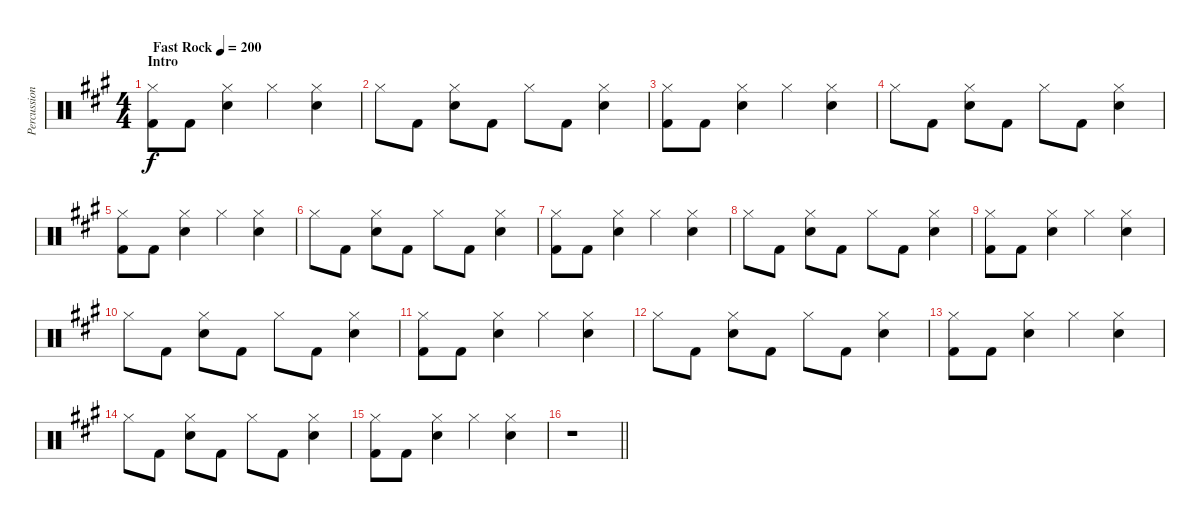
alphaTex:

\track ("Percussion" "Percussion") {instrument percussion}
\staff {score}
\articulation defaults
\ts (4 4)
\section ("" "Intro")
\tempo (200 "Fast Rock")
\clef neutral
\ks f#minor
("Hi-Hat (closed)" "Kick (hit) 2").8{dy f} "Kick (hit) 2".8 ("Hi-Hat (closed)" "Snare (hit) 2").4 "Hi-Hat (closed)".4 ("Hi-Hat (closed)" "Snare (hit) 2").4 |
"Hi-Hat (closed)".8 "Kick (hit) 2".8 ("Hi-Hat (closed)" "Snare (hit) 2").8 "Kick (hit) 2".8 "Hi-Hat (closed)".8 "Kick (hit) 2".8 ("Hi-Hat (closed)" "Snare (hit) 2").4 |
("Hi-Hat (closed)" "Kick (hit) 2").8 "Kick (hit) 2".8 ("Hi-Hat (closed)" "Snare (hit) 2").4 "Hi-Hat (closed)".4 ("Hi-Hat (closed)" "Snare (hit) 2").4 |
"Hi-Hat (closed)".8 "Kick (hit) 2".8 ("Hi-Hat (closed)" "Snare (hit) 2").8 "Kick (hit) 2".8 "Hi-Hat (closed)".8 "Kick (hit) 2".8 ("Hi-Hat (closed)" "Snare (hit) 2").4 |
("Hi-Hat (closed)" "Kick (hit) 2").8 "Kick (hit) 2".8 ("Hi-Hat (closed)" "Snare (hit) 2").4 "Hi-Hat (closed)".4 ("Hi-Hat (closed)" "Snare (hit) 2").4 |
"Hi-Hat (closed)".8 "Kick (hit) 2".8 ("Hi-Hat (closed)" "Snare (hit) 2").8 "Kick (hit) 2".8 "Hi-Hat (closed)".8 "Kick (hit) 2".8 ("Hi-Hat (closed)" "Snare (hit) 2").4 |
("Hi-Hat (closed)" "Kick (hit) 2").8 "Kick (hit) 2".8 ("Hi-Hat (closed)" "Snare (hit) 2").4 "Hi-Hat (closed)".4 ("Hi-Hat (closed)" "Snare (hit) 2").4 |
"Hi-Hat (closed)".8 "Kick (hit) 2".8 ("Hi-Hat (closed)" "Snare (hit) 2").8 "Kick (hit) 2".8 "Hi-Hat (closed)".8 "Kick (hit) 2".8 ("Hi-Hat (closed)" "Snare (hit) 2").4 |
("Hi-Hat (closed)" "Kick (hit) 2").8 "Kick (hit) 2".8 ("Hi-Hat (closed)" "Snare (hit) 2").4 "Hi-Hat (closed)".4 ("Hi-Hat (closed)" "Snare (hit) 2").4 |
"Hi-Hat (closed)".8 "Kick (hit) 2".8 ("Hi-Hat (closed)" "Snare (hit) 2").8 "Kick (hit) 2".8 "Hi-Hat (closed)".8 "Kick (hit) 2".8 ("Hi-Hat (closed)" "Snare (hit) 2").4 |
("Hi-Hat (closed)" "Kick (hit) 2").8 "Kick (hit) 2".8 ("Hi-Hat (closed)" "Snare (hit) 2").4 "Hi-Hat (closed)".4 ("Hi-Hat (closed)" "Snare (hit) 2").4 |
"Hi-Hat (closed)".8 "Kick (hit) 2".8 ("Hi-Hat (closed)" "Snare (hit) 2").8 "Kick (hit) 2".8 "Hi-Hat (closed)".8 "Kick (hit) 2".8 ("Hi-Hat (closed)" "Snare (hit) 2").4 |
("Hi-Hat (closed)" "Kick (hit) 2").8 "Kick (hit) 2".8 ("Hi-Hat (closed)" "Snare (hit) 2").4 "Hi-Hat (closed)".4 ("Hi-Hat (closed)" "Snare (hit) 2").4 |
"Hi-Hat (closed)".8 "Kick (hit) 2".8 ("Hi-Hat (closed)" "Snare (hit) 2").8 "Kick (hit) 2".8 "Hi-Hat (closed)".8 "Kick (hit) 2".8 ("Hi-Hat (closed)" "Snare (hit) 2").4 |
("Hi-Hat (closed)" "Kick (hit) 2").8 "Kick (hit) 2".8 ("Hi-Hat (closed)" "Snare (hit) 2").4 "Hi-Hat (closed)".4 ("Hi-Hat (closed)" "Snare (hit) 2").4 |
\barLineRight lightlight
r.1
